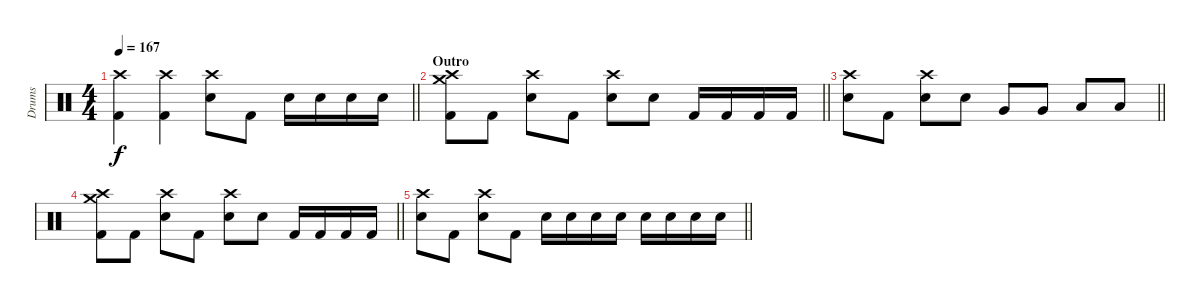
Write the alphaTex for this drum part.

\track ("Drums" "Drums") {instrument percussion}
\staff {score}
\articulation defaults
\ts (4 4)
\tempo 167
\clef neutral
\barLineRight lightlight
\ks c
("Kick (hit) 2" "Crash high (hit)").4{dy f} ("Kick (hit) 2" "Crash high (hit)").4 ("Electric Snare (hit)" "Crash high (hit)").8 "Kick (hit) 2".8 "Electric Snare (hit)".16 "Electric Snare (hit)".16 "Electric Snare (hit)".16 "Electric Snare (hit)".16 |
\section ("" "Outro")
\barLineRight lightlight
("Kick (hit) 2" "Crash high (hit)" "Crash medium (hit)").8 "Kick (hit) 2".8 ("Electric Snare (hit)" "Crash high (hit)").8 "Kick (hit) 2".8 ("Electric Snare (hit)" "Crash high (hit)").8 "Electric Snare (hit)".8 "Kick (hit) 2".16 "Kick (hit) 2".16 "Kick (hit) 2".16 "Kick (hit) 2".16 |
\barLineRight lightlight
("Electric Snare (hit)" "Crash high (hit)").8 "Kick (hit) 2".8 ("Electric Snare (hit)" "Crash high (hit)").8 "Electric Snare (hit)".8 "Very Low Tom (hit)".8 "Very Low Tom (hit)".8 "Low Floor Tom (hit)".8 "Low Floor Tom (hit)".8 |
\barLineRight lightlight
("Kick (hit) 2" "Crash high (hit)" "Crash medium (hit)").8 "Kick (hit) 2".8 ("Electric Snare (hit)" "Crash high (hit)").8 "Kick (hit) 2".8 ("Electric Snare (hit)" "Crash high (hit)").8 "Electric Snare (hit)".8 "Kick (hit) 2".16 "Kick (hit) 2".16 "Kick (hit) 2".16 "Kick (hit) 2".16 |
\barLineRight lightlight
("Electric Snare (hit)" "Crash high (hit)").8 "Kick (hit) 2".8 ("Electric Snare (hit)" "Crash high (hit)").8 "Kick (hit) 2".8 "Electric Snare (hit)".16 "Electric Snare (hit)".16 "Electric Snare (hit)".16 "Electric Snare (hit)".16 "Electric Snare (hit)".16 "Electric Snare (hit)".16 "Electric Snare (hit)".16 "Electric Snare (hit)".16
